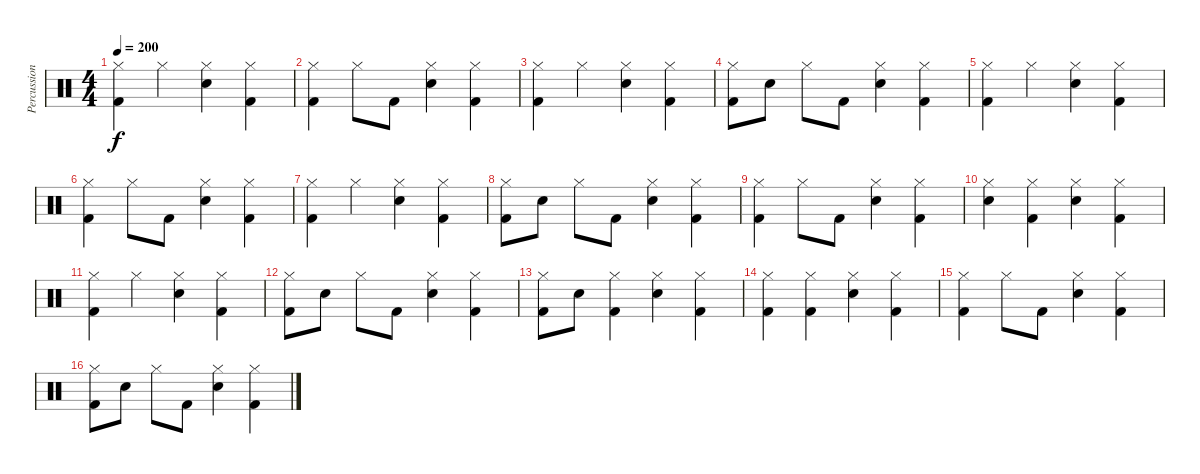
\track ("Percussion" "Percussion") {instrument percussion}
\staff {score}
\articulation defaults
\ts (4 4)
\tempo 200
\clef neutral
\ks c
("Kick (hit) 2" "Hi-Hat (closed)").4{dy f} "Hi-Hat (closed)".4 ("Snare (hit) 2" "Hi-Hat (closed)").4 ("Kick (hit) 2" "Hi-Hat (closed)").4 |
("Kick (hit) 2" "Hi-Hat (closed)").4 "Hi-Hat (closed)".8 "Kick (hit) 2".8 ("Snare (hit) 2" "Hi-Hat (closed)").4 ("Kick (hit) 2" "Hi-Hat (closed)").4 |
("Kick (hit) 2" "Hi-Hat (closed)").4 "Hi-Hat (closed)".4 ("Snare (hit) 2" "Hi-Hat (closed)").4 ("Kick (hit) 2" "Hi-Hat (closed)").4 |
("Kick (hit) 2" "Hi-Hat (closed)").8 "Snare (hit) 2".8 "Hi-Hat (closed)".8 "Kick (hit) 2".8 ("Snare (hit) 2" "Hi-Hat (closed)").4 ("Kick (hit) 2" "Hi-Hat (closed)").4 |
("Kick (hit) 2" "Hi-Hat (closed)").4 "Hi-Hat (closed)".4 ("Snare (hit) 2" "Hi-Hat (closed)").4 ("Kick (hit) 2" "Hi-Hat (closed)").4 |
("Kick (hit) 2" "Hi-Hat (closed)").4 "Hi-Hat (closed)".8 "Kick (hit) 2".8 ("Snare (hit) 2" "Hi-Hat (closed)").4 ("Kick (hit) 2" "Hi-Hat (closed)").4 |
("Kick (hit) 2" "Hi-Hat (closed)").4 "Hi-Hat (closed)".4 ("Snare (hit) 2" "Hi-Hat (closed)").4 ("Kick (hit) 2" "Hi-Hat (closed)").4 |
("Kick (hit) 2" "Hi-Hat (closed)").8 "Snare (hit) 2".8 "Hi-Hat (closed)".8 "Kick (hit) 2".8 ("Snare (hit) 2" "Hi-Hat (closed)").4 ("Kick (hit) 2" "Hi-Hat (closed)").4 |
("Kick (hit) 2" "Hi-Hat (closed)").4 "Hi-Hat (closed)".8 "Kick (hit) 2".8 ("Snare (hit) 2" "Hi-Hat (closed)").4 ("Kick (hit) 2" "Hi-Hat (closed)").4 |
("Snare (hit) 2" "Hi-Hat (closed)").4 ("Kick (hit) 2" "Hi-Hat (closed)").4 ("Snare (hit) 2" "Hi-Hat (closed)").4 ("Kick (hit) 2" "Hi-Hat (closed)").4 |
("Kick (hit) 2" "Hi-Hat (closed)").4 "Hi-Hat (closed)".4 ("Snare (hit) 2" "Hi-Hat (closed)").4 ("Kick (hit) 2" "Hi-Hat (closed)").4 |
("Kick (hit) 2" "Hi-Hat (closed)").8 "Snare (hit) 2".8 "Hi-Hat (closed)".8 "Kick (hit) 2".8 ("Snare (hit) 2" "Hi-Hat (closed)").4 ("Kick (hit) 2" "Hi-Hat (closed)").4 |
("Kick (hit) 2" "Hi-Hat (closed)").8 "Snare (hit) 2".8 ("Kick (hit) 2" "Hi-Hat (closed)").4 ("Snare (hit) 2" "Hi-Hat (closed)").4 ("Kick (hit) 2" "Hi-Hat (closed)").4 |
("Kick (hit) 2" "Hi-Hat (closed)").4 ("Kick (hit) 2" "Hi-Hat (closed)").4 ("Snare (hit) 2" "Hi-Hat (closed)").4 ("Kick (hit) 2" "Hi-Hat (closed)").4 |
("Kick (hit) 2" "Hi-Hat (closed)").4 "Hi-Hat (closed)".8 "Kick (hit) 2".8 ("Snare (hit) 2" "Hi-Hat (closed)").4 ("Kick (hit) 2" "Hi-Hat (closed)").4 |
("Kick (hit) 2" "Hi-Hat (closed)").8 "Snare (hit) 2".8 "Hi-Hat (closed)".8 "Kick (hit) 2".8 ("Snare (hit) 2" "Hi-Hat (closed)").4 ("Kick (hit) 2" "Hi-Hat (closed)").4
